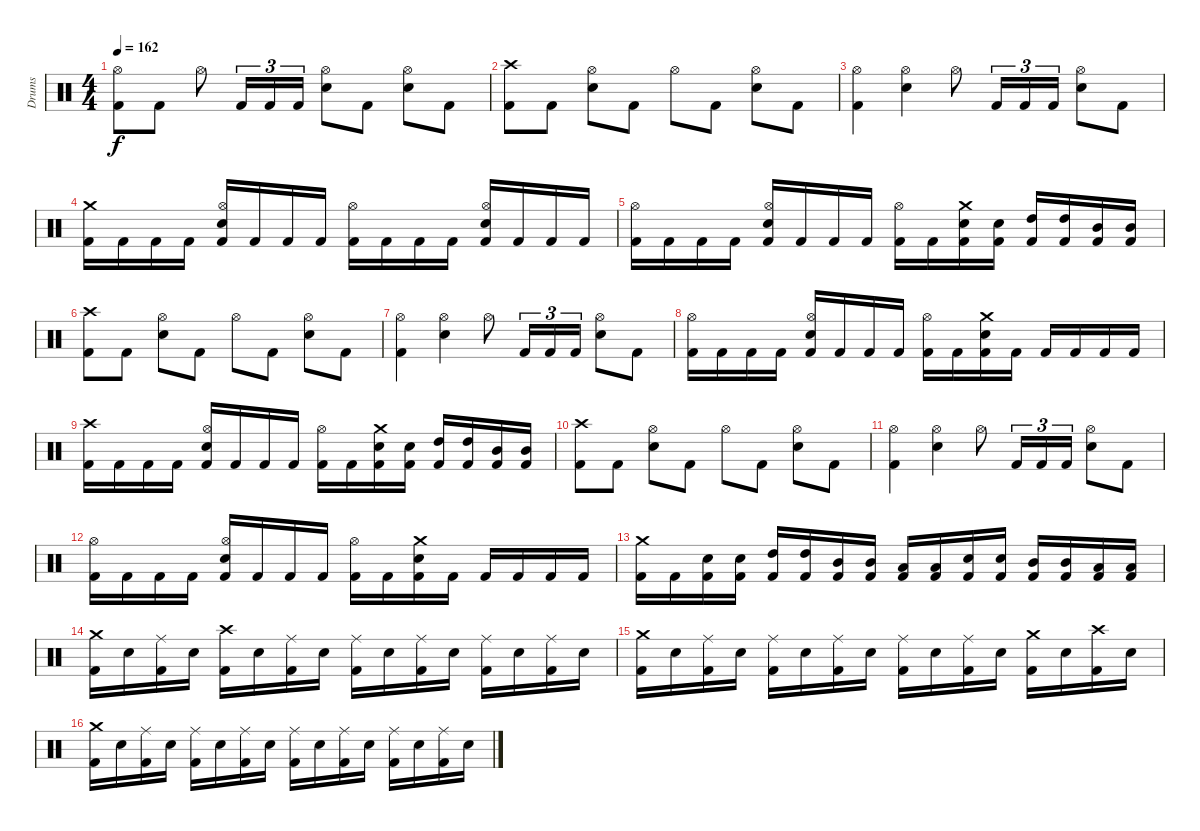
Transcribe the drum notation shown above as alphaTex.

\track ("Drums" "Drums") {instrument percussion}
\staff {score}
\articulation defaults
\ts (4 4)
\tempo 162
\clef neutral
\ks c
("Kick (hit) 2" "Hi-Hat (open)").8{dy f} "Kick (hit) 2".8 "Hi-Hat (open)".8 "Kick (hit) 2".16{tu (3 2)} "Kick (hit) 2".16{tu (3 2)} "Kick (hit) 2".16{tu (3 2)} ("Electric Snare (hit)" "Hi-Hat (open)").8 "Kick (hit) 2".8 ("Electric Snare (hit)" "Hi-Hat (open)").8 "Kick (hit) 2".8 |
("Kick (hit) 2" "Crash high (hit)").8 "Kick (hit) 2".8 ("Electric Snare (hit)" "Hi-Hat (open)").8 "Kick (hit) 2".8 "Hi-Hat (open)".8 "Kick (hit) 2".8 ("Electric Snare (hit)" "Hi-Hat (open)").8 "Kick (hit) 2".8 |
("Kick (hit) 2" "Hi-Hat (open)").4 ("Electric Snare (hit)" "Hi-Hat (open)").4 "Hi-Hat (open)".8 "Kick (hit) 2".16{tu (3 2)} "Kick (hit) 2".16{tu (3 2)} "Kick (hit) 2".16{tu (3 2)} ("Electric Snare (hit)" "Hi-Hat (open)").8 "Kick (hit) 2".8 |
("Kick (hit) 2" "Crash medium (hit)").16 "Kick (hit) 2".16 "Kick (hit) 2".16 "Kick (hit) 2".16 ("Kick (hit) 2" "Electric Snare (hit)" "Hi-Hat (open)").16 "Kick (hit) 2".16 "Kick (hit) 2".16 "Kick (hit) 2".16 ("Kick (hit) 2" "Hi-Hat (open)").16 "Kick (hit) 2".16 "Kick (hit) 2".16 "Kick (hit) 2".16 ("Kick (hit) 2" "Electric Snare (hit)" "Hi-Hat (open)").16 "Kick (hit) 2".16 "Kick (hit) 2".16 "Kick (hit) 2".16 |
("Kick (hit) 2" "Hi-Hat (open)").16 "Kick (hit) 2".16 "Kick (hit) 2".16 "Kick (hit) 2".16 ("Kick (hit) 2" "Electric Snare (hit)" "Hi-Hat (open)").16 "Kick (hit) 2".16 "Kick (hit) 2".16 "Kick (hit) 2".16 ("Kick (hit) 2" "Hi-Hat (open)").16 "Kick (hit) 2".16 ("Kick (hit) 2" "Electric Snare (hit)" "Crash medium (hit)").16 ("Kick (hit) 2" "Electric Snare (hit)").16 ("Kick (hit) 2" "High Tom (hit)").16 ("Kick (hit) 2" "High Tom (hit)").16 ("Kick (hit) 2" "Mid Tom (hit)").16 ("Kick (hit) 2" "Mid Tom (hit)").16 |
("Kick (hit) 2" "Crash high (hit)").8 "Kick (hit) 2".8 ("Electric Snare (hit)" "Hi-Hat (open)").8 "Kick (hit) 2".8 "Hi-Hat (open)".8 "Kick (hit) 2".8 ("Electric Snare (hit)" "Hi-Hat (open)").8 "Kick (hit) 2".8 |
("Kick (hit) 2" "Hi-Hat (open)").4 ("Electric Snare (hit)" "Hi-Hat (open)").4 "Hi-Hat (open)".8 "Kick (hit) 2".16{tu (3 2)} "Kick (hit) 2".16{tu (3 2)} "Kick (hit) 2".16{tu (3 2)} ("Electric Snare (hit)" "Hi-Hat (open)").8 "Kick (hit) 2".8 |
("Kick (hit) 2" "Hi-Hat (open)").16 "Kick (hit) 2".16 "Kick (hit) 2".16 "Kick (hit) 2".16 ("Kick (hit) 2" "Electric Snare (hit)" "Hi-Hat (open)").16 "Kick (hit) 2".16 "Kick (hit) 2".16 "Kick (hit) 2".16 ("Kick (hit) 2" "Hi-Hat (open)").16 "Kick (hit) 2".16 ("Kick (hit) 2" "Electric Snare (hit)" "Crash medium (hit)").16 "Kick (hit) 2".16 "Kick (hit) 2".16 "Kick (hit) 2".16 "Kick (hit) 2".16 "Kick (hit) 2".16 |
("Kick (hit) 2" "Crash high (hit)").16 "Kick (hit) 2".16 "Kick (hit) 2".16 "Kick (hit) 2".16 ("Kick (hit) 2" "Electric Snare (hit)" "Hi-Hat (open)").16 "Kick (hit) 2".16 "Kick (hit) 2".16 "Kick (hit) 2".16 ("Kick (hit) 2" "Hi-Hat (open)").16 "Kick (hit) 2".16 ("Kick (hit) 2" "Electric Snare (hit)" "Crash medium (hit)").16 ("Kick (hit) 2" "Electric Snare (hit)").16 ("Kick (hit) 2" "High Tom (hit)").16 ("Kick (hit) 2" "High Tom (hit)").16 ("Kick (hit) 2" "Mid Tom (hit)").16 ("Kick (hit) 2" "Mid Tom (hit)").16 |
("Kick (hit) 2" "Crash high (hit)").8 "Kick (hit) 2".8 ("Electric Snare (hit)" "Hi-Hat (open)").8 "Kick (hit) 2".8 "Hi-Hat (open)".8 "Kick (hit) 2".8 ("Electric Snare (hit)" "Hi-Hat (open)").8 "Kick (hit) 2".8 |
("Kick (hit) 2" "Hi-Hat (open)").4 ("Electric Snare (hit)" "Hi-Hat (open)").4 "Hi-Hat (open)".8 "Kick (hit) 2".16{tu (3 2)} "Kick (hit) 2".16{tu (3 2)} "Kick (hit) 2".16{tu (3 2)} ("Electric Snare (hit)" "Hi-Hat (open)").8 "Kick (hit) 2".8 |
("Kick (hit) 2" "Hi-Hat (open)").16 "Kick (hit) 2".16 "Kick (hit) 2".16 "Kick (hit) 2".16 ("Kick (hit) 2" "Electric Snare (hit)" "Hi-Hat (open)").16 "Kick (hit) 2".16 "Kick (hit) 2".16 "Kick (hit) 2".16 ("Kick (hit) 2" "Hi-Hat (open)").16 "Kick (hit) 2".16 ("Kick (hit) 2" "Electric Snare (hit)" "Crash medium (hit)").16 "Kick (hit) 2".16 "Kick (hit) 2".16 "Kick (hit) 2".16 "Kick (hit) 2".16 "Kick (hit) 2".16 |
("Kick (hit) 2" "Crash medium (hit)").16 "Kick (hit) 2".16 ("Kick (hit) 2" "Electric Snare (hit)").16 ("Kick (hit) 2" "Electric Snare (hit)").16 ("Kick (hit) 2" "High Tom (hit)").16 ("Kick (hit) 2" "High Tom (hit)").16 ("Kick (hit) 2" "Mid Tom (hit)").16 ("Kick (hit) 2" "Mid Tom (hit)").16 ("Kick (hit) 2" "Low Tom (hit)").16 ("Kick (hit) 2" "Low Tom (hit)").16 ("Kick (hit) 2" "Electric Snare (hit)").16 ("Kick (hit) 2" "Electric Snare (hit)").16 ("Kick (hit) 2" "Mid Tom (hit)").16 ("Kick (hit) 2" "Mid Tom (hit)").16 ("Kick (hit) 2" "Low Tom (hit)").16 ("Kick (hit) 2" "Low Tom (hit)").16 |
("Kick (hit) 2" "Crash medium (hit)").16 "Electric Snare (hit)".16 ("Kick (hit) 2" "Ride (middle)").16 "Electric Snare (hit)".16 ("Kick (hit) 2" "Crash high (hit)").16 "Electric Snare (hit)".16 ("Kick (hit) 2" "Ride (middle)").16 "Electric Snare (hit)".16 ("Kick (hit) 2" "Ride (middle)").16 "Electric Snare (hit)".16 ("Kick (hit) 2" "Ride (middle)").16 "Electric Snare (hit)".16 ("Kick (hit) 2" "Ride (middle)").16 "Electric Snare (hit)".16 ("Kick (hit) 2" "Ride (middle)").16 "Electric Snare (hit)".16 |
("Kick (hit) 2" "Crash medium (hit)").16 "Electric Snare (hit)".16 ("Kick (hit) 2" "Ride (middle)").16 "Electric Snare (hit)".16 ("Kick (hit) 2" "Ride (middle)").16 "Electric Snare (hit)".16 ("Kick (hit) 2" "Ride (middle)").16 "Electric Snare (hit)".16 ("Kick (hit) 2" "Ride (middle)").16 "Electric Snare (hit)".16 ("Kick (hit) 2" "Ride (middle)").16 "Electric Snare (hit)".16 ("Kick (hit) 2" "Crash medium (hit)").16 "Electric Snare (hit)".16 ("Kick (hit) 2" "Crash high (hit)").16 "Electric Snare (hit)".16 |
("Kick (hit) 2" "Crash medium (hit)").16 "Electric Snare (hit)".16 ("Kick (hit) 2" "Ride (middle)").16 "Electric Snare (hit)".16 ("Kick (hit) 2" "Ride (middle)").16 "Electric Snare (hit)".16 ("Kick (hit) 2" "Ride (middle)").16 "Electric Snare (hit)".16 ("Kick (hit) 2" "Ride (middle)").16 "Electric Snare (hit)".16 ("Kick (hit) 2" "Ride (middle)").16 "Electric Snare (hit)".16 ("Kick (hit) 2" "Ride (middle)").16 "Electric Snare (hit)".16 ("Kick (hit) 2" "Ride (middle)").16 "Electric Snare (hit)".16
